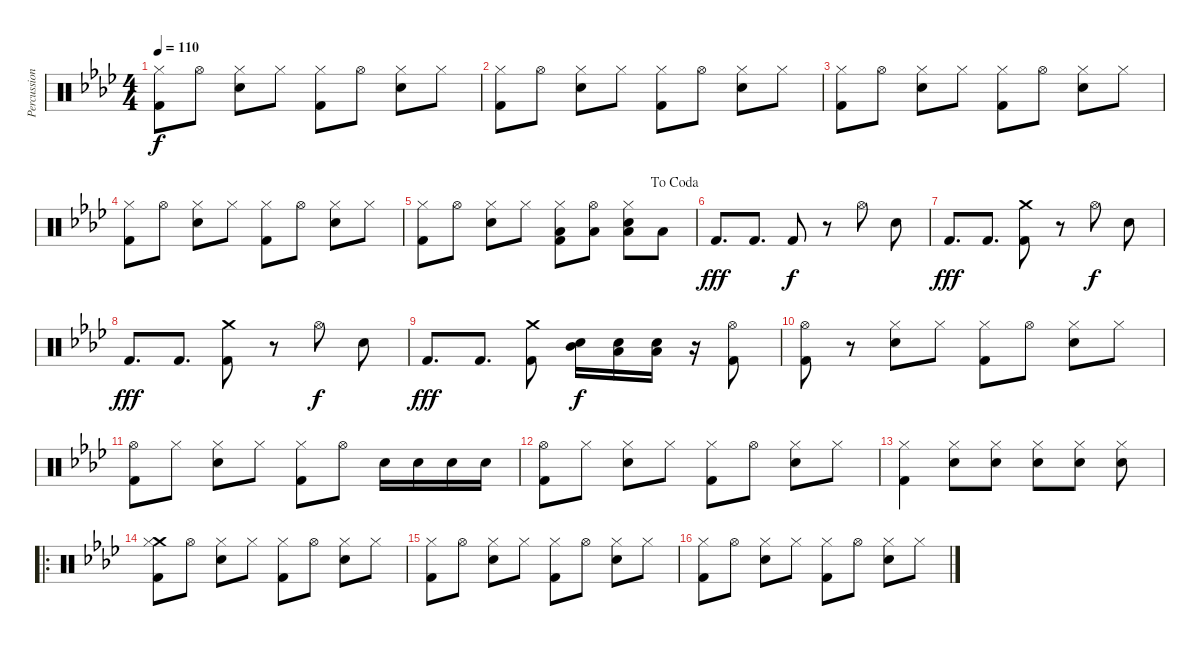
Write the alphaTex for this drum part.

\track ("Percussions" "Percussion") {instrument percussion}
\staff {score}
\articulation defaults
\ts (4 4)
\tempo 110
\clef neutral
\ks ab
("Hi-Hat (closed)" "Kick (hit) 2").8{dy f} "Hi-Hat (open)".8 ("Hi-Hat (closed)" "Electric Snare (hit)").8 "Hi-Hat (closed)".8 ("Hi-Hat (closed)" "Kick (hit) 2").8 "Hi-Hat (open)".8 ("Hi-Hat (closed)" "Electric Snare (hit)").8 "Hi-Hat (closed)".8 |
("Hi-Hat (closed)" "Kick (hit) 2").8 "Hi-Hat (open)".8 ("Hi-Hat (closed)" "Electric Snare (hit)").8 "Hi-Hat (closed)".8 ("Hi-Hat (closed)" "Kick (hit) 2").8 "Hi-Hat (open)".8 ("Hi-Hat (closed)" "Electric Snare (hit)").8 "Hi-Hat (closed)".8 |
("Hi-Hat (closed)" "Kick (hit) 2").8 "Hi-Hat (open)".8 ("Hi-Hat (closed)" "Electric Snare (hit)").8 "Hi-Hat (closed)".8 ("Hi-Hat (closed)" "Kick (hit) 2").8 "Hi-Hat (open)".8 ("Hi-Hat (closed)" "Electric Snare (hit)").8 "Hi-Hat (closed)".8 |
("Hi-Hat (closed)" "Kick (hit) 2").8 "Hi-Hat (open)".8 ("Hi-Hat (closed)" "Electric Snare (hit)").8 "Hi-Hat (closed)".8 ("Hi-Hat (closed)" "Kick (hit) 2").8 "Hi-Hat (open)".8 ("Hi-Hat (closed)" "Electric Snare (hit)").8 "Hi-Hat (closed)".8 |
\jump dacoda
("Hi-Hat (closed)" "Kick (hit) 2").8 "Hi-Hat (open)".8 ("Hi-Hat (closed)" "Electric Snare (hit)").8 "Hi-Hat (closed)".8 ("Hi-Hat (closed)" "Kick (hit) 2" "Low Floor Tom (hit)").8 ("Low Floor Tom (hit)" "Hi-Hat (open)").8 ("Hi-Hat (closed)" "Electric Snare (hit)" "Low Floor Tom (hit)").8 "Low Floor Tom (hit)".8 |
"Kick (hit) 2".8{d dy fff} "Kick (hit) 2".8{d} "Kick (hit) 2".8{dy f} r.8 "Hi-Hat (open)".8 "Electric Snare (hit)".8 |
"Kick (hit) 2".8{d dy fff} "Kick (hit) 2".8{d} ("Kick (hit) 2" "Crash medium (hit)").8 r.8 "Hi-Hat (open)".8{dy f} "Electric Snare (hit)".8 |
"Kick (hit) 2".8{d dy fff} "Kick (hit) 2".8{d} ("Kick (hit) 2" "Crash medium (hit)").8 r.8 "Hi-Hat (open)".8{dy f} "Electric Snare (hit)".8 |
"Kick (hit) 2".8{d dy fff} "Kick (hit) 2".8{d} ("Kick (hit) 2" "Crash medium (hit)").8 ("Mid Tom (hit)" "Electric Snare (hit)").16{dy f} ("Low Tom (hit)" "Electric Snare (hit)").16 ("Low Floor Tom (hit)" "Electric Snare (hit)").16 r.16 ("Hi-Hat (open)" "Kick (hit) 2").8 |
("Hi-Hat (open)" "Kick (hit) 2").8 r.8 ("Electric Snare (hit)" "Hi-Hat (closed)").8 "Hi-Hat (closed)".8 ("Kick (hit) 2" "Hi-Hat (closed)").8 "Hi-Hat (open)".8 ("Electric Snare (hit)" "Hi-Hat (closed)").8 "Hi-Hat (closed)".8 |
("Hi-Hat (open)" "Kick (hit) 2").8 "Hi-Hat (closed)".8 ("Electric Snare (hit)" "Hi-Hat (closed)").8 "Hi-Hat (closed)".8 ("Kick (hit) 2" "Hi-Hat (closed)").8 "Hi-Hat (open)".8 "Electric Snare (hit)".16 "Electric Snare (hit)".16 "Electric Snare (hit)".16 "Electric Snare (hit)".16 |
("Hi-Hat (open)" "Kick (hit) 2").8 "Hi-Hat (closed)".8 ("Electric Snare (hit)" "Hi-Hat (closed)").8 "Hi-Hat (closed)".8 ("Kick (hit) 2" "Hi-Hat (closed)").8 "Hi-Hat (open)".8 ("Electric Snare (hit)" "Hi-Hat (closed)").8 "Hi-Hat (closed)".8 |
("Hi-Hat (closed)" "Kick (hit) 2").4 ("Hi-Hat (closed)" "Electric Snare (hit)").8 ("Hi-Hat (closed)" "Electric Snare (hit)").8 ("Hi-Hat (closed)" "Electric Snare (hit)").8 ("Hi-Hat (closed)" "Electric Snare (hit)").8 ("Hi-Hat (closed)" "Electric Snare (hit)").8 |
\ro
("Crash medium (hit)" "Hi-Hat (closed)" "Kick (hit) 2").8 "Hi-Hat (open)".8 ("Hi-Hat (closed)" "Electric Snare (hit)").8 "Hi-Hat (closed)".8 ("Hi-Hat (closed)" "Kick (hit) 2").8 "Hi-Hat (open)".8 ("Hi-Hat (closed)" "Electric Snare (hit)").8 "Hi-Hat (closed)".8 |
("Hi-Hat (closed)" "Kick (hit) 2").8 "Hi-Hat (open)".8 ("Hi-Hat (closed)" "Electric Snare (hit)").8 "Hi-Hat (closed)".8 ("Hi-Hat (closed)" "Kick (hit) 2").8 "Hi-Hat (open)".8 ("Hi-Hat (closed)" "Electric Snare (hit)").8 "Hi-Hat (closed)".8 |
("Hi-Hat (closed)" "Kick (hit) 2").8 "Hi-Hat (open)".8 ("Hi-Hat (closed)" "Electric Snare (hit)").8 "Hi-Hat (closed)".8 ("Hi-Hat (closed)" "Kick (hit) 2").8 "Hi-Hat (open)".8 ("Hi-Hat (closed)" "Electric Snare (hit)").8 "Hi-Hat (closed)".8
